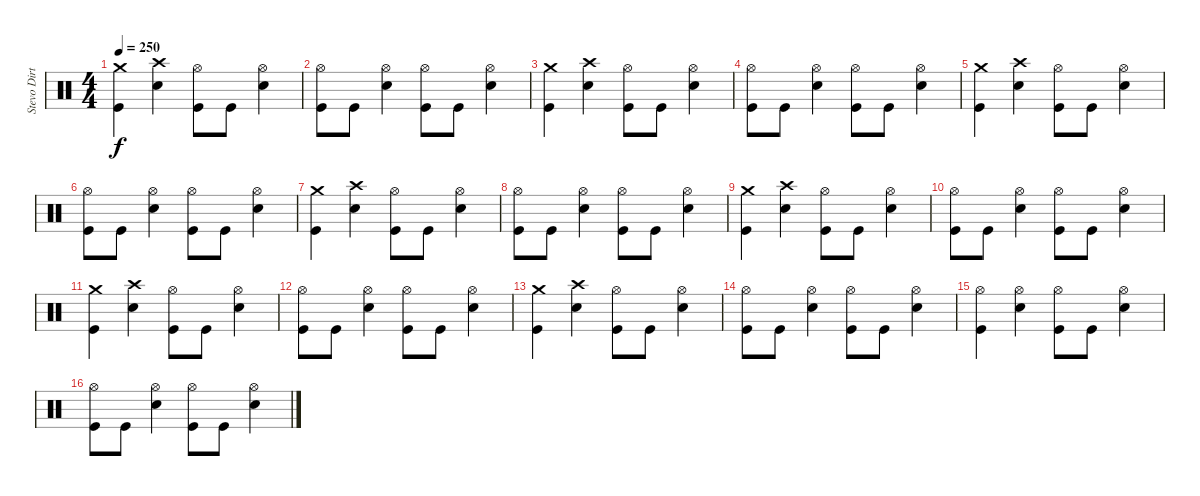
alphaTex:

\track ("Stevo Dirty Poo" "Stevo Dirt") {instrument percussion}
\staff {score}
\articulation defaults
\ts (4 4)
\tempo 250
\clef neutral
\ks c
("Crash medium (hit)" "Kick (hit)").4{dy f} ("Crash high (hit)" "Snare (hit) 2").4 ("Hi-Hat (open)" "Kick (hit)").8 "Kick (hit)".8 ("Hi-Hat (open)" "Snare (hit) 2").4 |
("Hi-Hat (open)" "Kick (hit)").8 "Kick (hit)".8 ("Hi-Hat (open)" "Snare (hit) 2").4 ("Hi-Hat (open)" "Kick (hit)").8 "Kick (hit)".8 ("Hi-Hat (open)" "Snare (hit) 2").4 |
("Crash medium (hit)" "Kick (hit)").4 ("Crash high (hit)" "Snare (hit) 2").4 ("Hi-Hat (open)" "Kick (hit)").8 "Kick (hit)".8 ("Hi-Hat (open)" "Snare (hit) 2").4 |
("Hi-Hat (open)" "Kick (hit)").8 "Kick (hit)".8 ("Hi-Hat (open)" "Snare (hit) 2").4 ("Hi-Hat (open)" "Kick (hit)").8 "Kick (hit)".8 ("Hi-Hat (open)" "Snare (hit) 2").4 |
("Crash medium (hit)" "Kick (hit)").4 ("Crash high (hit)" "Snare (hit) 2").4 ("Hi-Hat (open)" "Kick (hit)").8 "Kick (hit)".8 ("Hi-Hat (open)" "Snare (hit) 2").4 |
("Hi-Hat (open)" "Kick (hit)").8 "Kick (hit)".8 ("Hi-Hat (open)" "Snare (hit) 2").4 ("Hi-Hat (open)" "Kick (hit)").8 "Kick (hit)".8 ("Hi-Hat (open)" "Snare (hit) 2").4 |
("Crash medium (hit)" "Kick (hit)").4 ("Crash high (hit)" "Snare (hit) 2").4 ("Hi-Hat (open)" "Kick (hit)").8 "Kick (hit)".8 ("Hi-Hat (open)" "Snare (hit) 2").4 |
("Hi-Hat (open)" "Kick (hit)").8 "Kick (hit)".8 ("Hi-Hat (open)" "Snare (hit) 2").4 ("Hi-Hat (open)" "Kick (hit)").8 "Kick (hit)".8 ("Hi-Hat (open)" "Snare (hit) 2").4 |
("Crash medium (hit)" "Kick (hit)").4 ("Crash high (hit)" "Snare (hit) 2").4 ("Hi-Hat (open)" "Kick (hit)").8 "Kick (hit)".8 ("Hi-Hat (open)" "Snare (hit) 2").4 |
("Hi-Hat (open)" "Kick (hit)").8 "Kick (hit)".8 ("Hi-Hat (open)" "Snare (hit) 2").4 ("Hi-Hat (open)" "Kick (hit)").8 "Kick (hit)".8 ("Hi-Hat (open)" "Snare (hit) 2").4 |
("Crash medium (hit)" "Kick (hit)").4 ("Crash high (hit)" "Snare (hit) 2").4 ("Hi-Hat (open)" "Kick (hit)").8 "Kick (hit)".8 ("Hi-Hat (open)" "Snare (hit) 2").4 |
("Hi-Hat (open)" "Kick (hit)").8 "Kick (hit)".8 ("Hi-Hat (open)" "Snare (hit) 2").4 ("Hi-Hat (open)" "Kick (hit)").8 "Kick (hit)".8 ("Hi-Hat (open)" "Snare (hit) 2").4 |
("Crash medium (hit)" "Kick (hit)").4 ("Crash high (hit)" "Snare (hit) 2").4 ("Hi-Hat (open)" "Kick (hit)").8 "Kick (hit)".8 ("Hi-Hat (open)" "Snare (hit) 2").4 |
("Hi-Hat (open)" "Kick (hit)").8 "Kick (hit)".8 ("Hi-Hat (open)" "Snare (hit) 2").4 ("Hi-Hat (open)" "Kick (hit)").8 "Kick (hit)".8 ("Hi-Hat (open)" "Snare (hit) 2").4 |
("Hi-Hat (open)" "Kick (hit)").4 ("Hi-Hat (open)" "Snare (hit) 2").4 ("Hi-Hat (open)" "Kick (hit)").8 "Kick (hit)".8 ("Hi-Hat (open)" "Snare (hit) 2").4 |
("Hi-Hat (open)" "Kick (hit)").8 "Kick (hit)".8 ("Hi-Hat (open)" "Snare (hit) 2").4 ("Hi-Hat (open)" "Kick (hit)").8 "Kick (hit)".8 ("Hi-Hat (open)" "Snare (hit) 2").4
